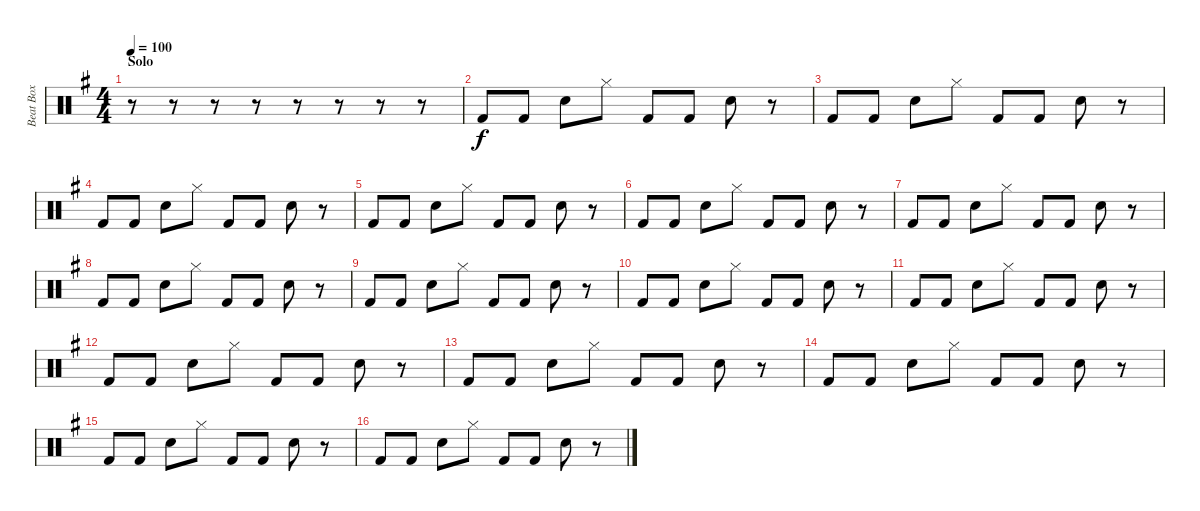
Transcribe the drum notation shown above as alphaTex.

\track ("Beat Box" "Beat Box") {instrument percussion}
\staff {score}
\articulation defaults
\ts (4 4)
\section ("" "Solo")
\tempo 100
\clef neutral
\ks g
r.8{dy f} r.8 r.8 r.8 r.8 r.8 r.8 r.8 |
"Kick (hit) 2".8 "Kick (hit) 2".8 "Snare (hit) 2".8 "Hi-Hat (closed)".8 "Kick (hit) 2".8 "Kick (hit) 2".8 "Snare (hit) 2".8 r.8 |
\section ("" "")
"Kick (hit) 2".8 "Kick (hit) 2".8 "Snare (hit) 2".8 "Hi-Hat (closed)".8 "Kick (hit) 2".8 "Kick (hit) 2".8 "Snare (hit) 2".8 r.8 |
\section ("" "")
"Kick (hit) 2".8 "Kick (hit) 2".8 "Snare (hit) 2".8 "Hi-Hat (closed)".8 "Kick (hit) 2".8 "Kick (hit) 2".8 "Snare (hit) 2".8 r.8 |
"Kick (hit) 2".8 "Kick (hit) 2".8 "Snare (hit) 2".8 "Hi-Hat (closed)".8 "Kick (hit) 2".8 "Kick (hit) 2".8 "Snare (hit) 2".8 r.8 |
"Kick (hit) 2".8 "Kick (hit) 2".8 "Snare (hit) 2".8 "Hi-Hat (closed)".8 "Kick (hit) 2".8 "Kick (hit) 2".8 "Snare (hit) 2".8 r.8 |
"Kick (hit) 2".8 "Kick (hit) 2".8 "Snare (hit) 2".8 "Hi-Hat (closed)".8 "Kick (hit) 2".8 "Kick (hit) 2".8 "Snare (hit) 2".8 r.8 |
"Kick (hit) 2".8 "Kick (hit) 2".8 "Snare (hit) 2".8 "Hi-Hat (closed)".8 "Kick (hit) 2".8 "Kick (hit) 2".8 "Snare (hit) 2".8 r.8 |
"Kick (hit) 2".8 "Kick (hit) 2".8 "Snare (hit) 2".8 "Hi-Hat (closed)".8 "Kick (hit) 2".8 "Kick (hit) 2".8 "Snare (hit) 2".8 r.8 |
"Kick (hit) 2".8 "Kick (hit) 2".8 "Snare (hit) 2".8 "Hi-Hat (closed)".8 "Kick (hit) 2".8 "Kick (hit) 2".8 "Snare (hit) 2".8 r.8 |
"Kick (hit) 2".8 "Kick (hit) 2".8 "Snare (hit) 2".8 "Hi-Hat (closed)".8 "Kick (hit) 2".8 "Kick (hit) 2".8 "Snare (hit) 2".8 r.8 |
"Kick (hit) 2".8 "Kick (hit) 2".8 "Snare (hit) 2".8 "Hi-Hat (closed)".8 "Kick (hit) 2".8 "Kick (hit) 2".8 "Snare (hit) 2".8 r.8 |
"Kick (hit) 2".8 "Kick (hit) 2".8 "Snare (hit) 2".8 "Hi-Hat (closed)".8 "Kick (hit) 2".8 "Kick (hit) 2".8 "Snare (hit) 2".8 r.8 |
"Kick (hit) 2".8 "Kick (hit) 2".8 "Snare (hit) 2".8 "Hi-Hat (closed)".8 "Kick (hit) 2".8 "Kick (hit) 2".8 "Snare (hit) 2".8 r.8 |
"Kick (hit) 2".8 "Kick (hit) 2".8 "Snare (hit) 2".8 "Hi-Hat (closed)".8 "Kick (hit) 2".8 "Kick (hit) 2".8 "Snare (hit) 2".8 r.8 |
"Kick (hit) 2".8 "Kick (hit) 2".8 "Snare (hit) 2".8 "Hi-Hat (closed)".8 "Kick (hit) 2".8 "Kick (hit) 2".8 "Snare (hit) 2".8 r.8
